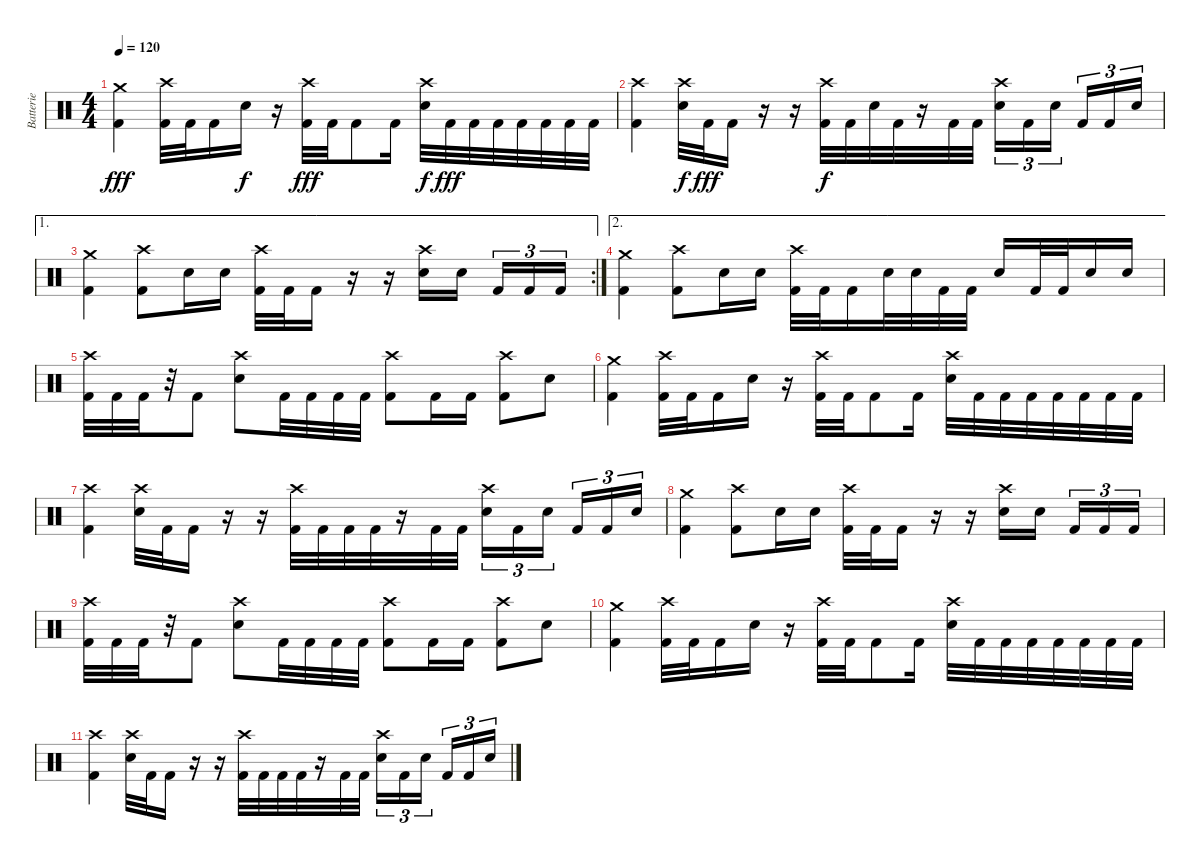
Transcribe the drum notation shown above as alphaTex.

\track ("Batterie" "Batterie") {instrument percussion}
\staff {score}
\articulation defaults
\ts (4 4)
\tempo 120
\clef neutral
\ks c
("Crash medium (hit)" "Kick (hit) 2").4{dy fff} ("Crash high (hit)" "Kick (hit) 2").32 "Kick (hit) 2".32 "Kick (hit) 2".16 "Electric Snare (hit)".16{dy f} r.16 ("Crash high (hit)" "Kick (hit) 2").32{dy fff} "Kick (hit) 2".32 "Kick (hit) 2".8 "Kick (hit) 2".16 ("Crash high (hit)" "Electric Snare (hit)").32{dy f} "Kick (hit) 2".32{dy fff} "Kick (hit) 2".32 "Kick (hit) 2".32 "Kick (hit) 2".32 "Kick (hit) 2".32 "Kick (hit) 2".32 "Kick (hit) 2".32 |
("Crash high (hit)" "Kick (hit) 2").4 ("Crash high (hit)" "Electric Snare (hit)").32{dy f} "Kick (hit) 2".32{dy fff} "Kick (hit) 2".16 r.16 r.16 ("Crash high (hit)" "Kick (hit) 2").32{dy f} "Kick (hit) 2".32 "Electric Snare (hit)".32 "Kick (hit) 2".32 r.16 "Kick (hit) 2".32 "Kick (hit) 2".32 ("Crash high (hit)" "Electric Snare (hit)").16{tu (3 2)} "Kick (hit) 2".16{tu (3 2)} "Electric Snare (hit)".16{tu (3 2) beam splitsecondary} "Kick (hit) 2".16{tu (3 2)} "Kick (hit) 2".16{tu (3 2)} "Electric Snare (hit)".16{tu (3 2)} |
\ae 1
\rc 2
("Crash medium (hit)" "Kick (hit) 2").4 ("Crash high (hit)" "Kick (hit) 2").8 "Electric Snare (hit)".16 "Electric Snare (hit)".16 ("Crash high (hit)" "Kick (hit) 2").32 "Kick (hit) 2".32 "Kick (hit) 2".16 r.16 r.16 ("Crash high (hit)" "Electric Snare (hit)").16 "Electric Snare (hit)".16{beam splitsecondary} "Kick (hit) 2".16{tu (3 2)} "Kick (hit) 2".16{tu (3 2)} "Kick (hit) 2".16{tu (3 2)} |
\ae 2
("Crash medium (hit)" "Kick (hit) 2").4 ("Crash high (hit)" "Kick (hit) 2").8 "Electric Snare (hit)".16 "Electric Snare (hit)".16 ("Crash high (hit)" "Kick (hit) 2").32 "Kick (hit) 2".32 "Kick (hit) 2".16 "Electric Snare (hit)".32 "Electric Snare (hit)".32 "Kick (hit) 2".32 "Kick (hit) 2".32 "Electric Snare (hit)".16 "Kick (hit) 2".32 "Kick (hit) 2".32 "Electric Snare (hit)".16 "Electric Snare (hit)".16 |
("Crash high (hit)" "Kick (hit) 2").32 "Kick (hit) 2".32 "Kick (hit) 2".32 r.32 "Kick (hit) 2".8 ("Crash high (hit)" "Electric Snare (hit)").8 "Kick (hit) 2".32 "Kick (hit) 2".32 "Kick (hit) 2".32 "Kick (hit) 2".32 ("Crash high (hit)" "Kick (hit) 2").8 "Kick (hit) 2".16 "Kick (hit) 2".16 ("Crash high (hit)" "Kick (hit) 2").8 "Electric Snare (hit)".8 |
("Crash medium (hit)" "Kick (hit) 2").4 ("Crash high (hit)" "Kick (hit) 2").32 "Kick (hit) 2".32 "Kick (hit) 2".16 "Electric Snare (hit)".16 r.16 ("Crash high (hit)" "Kick (hit) 2").32 "Kick (hit) 2".32 "Kick (hit) 2".8 "Kick (hit) 2".16 ("Crash high (hit)" "Electric Snare (hit)").32 "Kick (hit) 2".32 "Kick (hit) 2".32 "Kick (hit) 2".32 "Kick (hit) 2".32 "Kick (hit) 2".32 "Kick (hit) 2".32 "Kick (hit) 2".32 |
("Crash high (hit)" "Kick (hit) 2").4 ("Crash high (hit)" "Electric Snare (hit)").32 "Kick (hit) 2".32 "Kick (hit) 2".16 r.16 r.16 ("Crash high (hit)" "Kick (hit) 2").32 "Kick (hit) 2".32 "Kick (hit) 2".32 "Kick (hit) 2".32 r.16 "Kick (hit) 2".32 "Kick (hit) 2".32 ("Crash high (hit)" "Electric Snare (hit)").16{tu (3 2)} "Kick (hit) 2".16{tu (3 2)} "Electric Snare (hit)".16{tu (3 2) beam splitsecondary} "Kick (hit) 2".16{tu (3 2)} "Kick (hit) 2".16{tu (3 2)} "Electric Snare (hit)".16{tu (3 2)} |
("Crash medium (hit)" "Kick (hit) 2").4 ("Crash high (hit)" "Kick (hit) 2").8 "Electric Snare (hit)".16 "Electric Snare (hit)".16 ("Crash high (hit)" "Kick (hit) 2").32 "Kick (hit) 2".32 "Kick (hit) 2".16 r.16 r.16 ("Crash high (hit)" "Electric Snare (hit)").16 "Electric Snare (hit)".16{beam splitsecondary} "Kick (hit) 2".16{tu (3 2)} "Kick (hit) 2".16{tu (3 2)} "Kick (hit) 2".16{tu (3 2)} |
("Crash high (hit)" "Kick (hit) 2").32 "Kick (hit) 2".32 "Kick (hit) 2".32 r.32 "Kick (hit) 2".8 ("Crash high (hit)" "Electric Snare (hit)").8 "Kick (hit) 2".32 "Kick (hit) 2".32 "Kick (hit) 2".32 "Kick (hit) 2".32 ("Crash high (hit)" "Kick (hit) 2").8 "Kick (hit) 2".16 "Kick (hit) 2".16 ("Crash high (hit)" "Kick (hit) 2").8 "Electric Snare (hit)".8 |
("Crash medium (hit)" "Kick (hit) 2").4 ("Crash high (hit)" "Kick (hit) 2").32 "Kick (hit) 2".32 "Kick (hit) 2".16 "Electric Snare (hit)".16 r.16 ("Crash high (hit)" "Kick (hit) 2").32 "Kick (hit) 2".32 "Kick (hit) 2".8 "Kick (hit) 2".16 ("Crash high (hit)" "Electric Snare (hit)").32 "Kick (hit) 2".32 "Kick (hit) 2".32 "Kick (hit) 2".32 "Kick (hit) 2".32 "Kick (hit) 2".32 "Kick (hit) 2".32 "Kick (hit) 2".32 |
("Crash high (hit)" "Kick (hit) 2").4 ("Crash high (hit)" "Electric Snare (hit)").32 "Kick (hit) 2".32 "Kick (hit) 2".16 r.16 r.16 ("Crash high (hit)" "Kick (hit) 2").32 "Kick (hit) 2".32 "Kick (hit) 2".32 "Kick (hit) 2".32 r.16 "Kick (hit) 2".32 "Kick (hit) 2".32 ("Crash high (hit)" "Electric Snare (hit)").16{tu (3 2)} "Kick (hit) 2".16{tu (3 2)} "Electric Snare (hit)".16{tu (3 2) beam splitsecondary} "Kick (hit) 2".16{tu (3 2)} "Kick (hit) 2".16{tu (3 2)} "Electric Snare (hit)".16{tu (3 2)}
